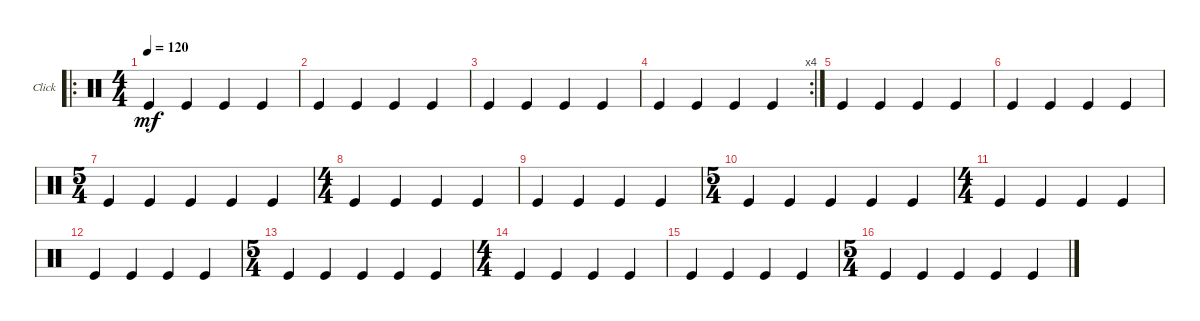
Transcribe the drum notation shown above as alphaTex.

\bracketExtendMode groupsimilarinstruments
\firstSystemTrackNameOrientation horizontal
\otherSystemsTrackNameOrientation horizontal
\track ("Click" "Click") {instrument percussion}
\staff {score}
\articulation defaults
\ro
\ts (4 4)
\tempo 120
\clef neutral
\ks c "Kick (hit)".4{dy mf} "Kick (hit)".4 "Kick (hit)".4 "Kick (hit)".4
|
"Kick (hit)".4 "Kick (hit)".4 "Kick (hit)".4 "Kick (hit)".4 |
"Kick (hit)".4 "Kick (hit)".4 "Kick (hit)".4 "Kick (hit)".4 |
\rc 4 "Kick (hit)".4 "Kick (hit)".4 "Kick (hit)".4 "Kick (hit)".4
|
"Kick (hit)".4 "Kick (hit)".4 "Kick (hit)".4 "Kick (hit)".4 |
"Kick (hit)".4 "Kick (hit)".4 "Kick (hit)".4 "Kick (hit)".4 |
\ts (5 4)
"Kick (hit)".4 "Kick (hit)".4 "Kick (hit)".4 "Kick (hit)".4 "Kick (hit)".4 |
\ts (4 4)
"Kick (hit)".4 "Kick (hit)".4 "Kick (hit)".4 "Kick (hit)".4 |
"Kick (hit)".4 "Kick (hit)".4 "Kick (hit)".4 "Kick (hit)".4 |
\ts (5 4)
"Kick (hit)".4 "Kick (hit)".4 "Kick (hit)".4 "Kick (hit)".4 "Kick (hit)".4 |
\ts (4 4)
"Kick (hit)".4 "Kick (hit)".4 "Kick (hit)".4 "Kick (hit)".4 |
"Kick (hit)".4 "Kick (hit)".4 "Kick (hit)".4 "Kick (hit)".4 |
\ts (5 4)
"Kick (hit)".4 "Kick (hit)".4 "Kick (hit)".4 "Kick (hit)".4 "Kick (hit)".4 |
\ts (4 4)
"Kick (hit)".4 "Kick (hit)".4 "Kick (hit)".4 "Kick (hit)".4 |
"Kick (hit)".4 "Kick (hit)".4 "Kick (hit)".4 "Kick (hit)".4 |
\ts (5 4)
"Kick (hit)".4 "Kick (hit)".4 "Kick (hit)".4 "Kick (hit)".4 "Kick (hit)".4
